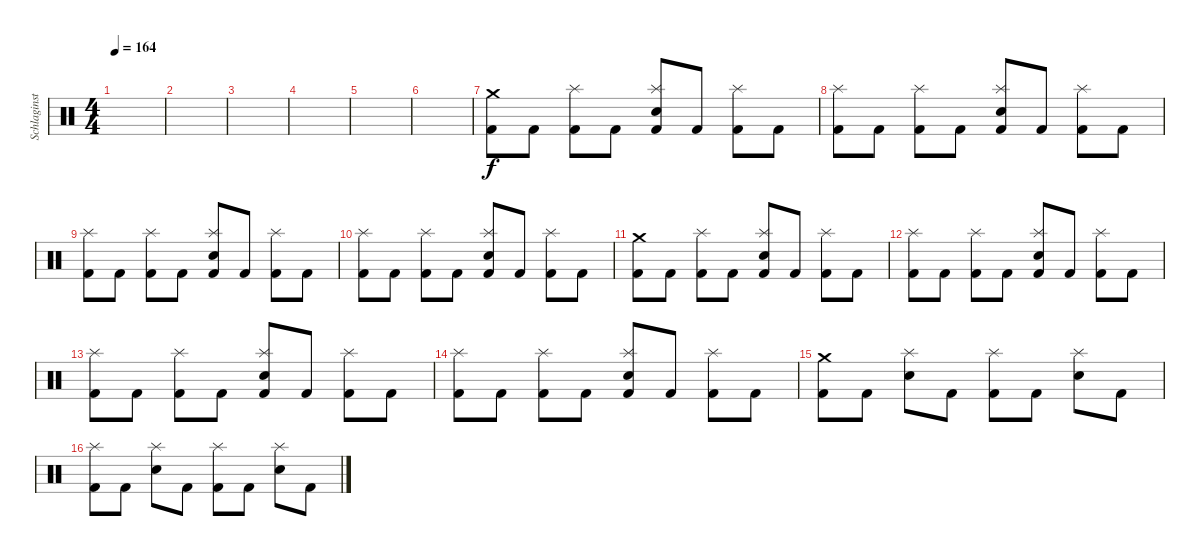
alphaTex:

\track ("Schlaginstrumente - Auswahl" "Schlaginst") {instrument percussion}
\staff {score}
\articulation defaults
\ts (4 4)
\tempo 164
\clef neutral
\ks c
|
|
|
|
|
|
("Crash medium (hit)" "Kick (hit) 2").8 "Kick (hit) 2".8 ("Splash (hit)" "Kick (hit) 2").8 "Kick (hit) 2".8 ("Splash (hit)" "Electric Snare (hit)" "Kick (hit) 2").8 "Kick (hit) 2".8 ("Splash (hit)" "Kick (hit) 2").8 "Kick (hit) 2".8 |
("Splash (hit)" "Kick (hit) 2").8 "Kick (hit) 2".8 ("Splash (hit)" "Kick (hit) 2").8 "Kick (hit) 2".8 ("Splash (hit)" "Electric Snare (hit)" "Kick (hit) 2").8 "Kick (hit) 2".8 ("Splash (hit)" "Kick (hit) 2").8 "Kick (hit) 2".8 |
("Splash (hit)" "Kick (hit) 2").8 "Kick (hit) 2".8 ("Splash (hit)" "Kick (hit) 2").8 "Kick (hit) 2".8 ("Splash (hit)" "Electric Snare (hit)" "Kick (hit) 2").8 "Kick (hit) 2".8 ("Splash (hit)" "Kick (hit) 2").8 "Kick (hit) 2".8 |
("Splash (hit)" "Kick (hit) 2").8 "Kick (hit) 2".8 ("Splash (hit)" "Kick (hit) 2").8 "Kick (hit) 2".8 ("Splash (hit)" "Electric Snare (hit)" "Kick (hit) 2").8 "Kick (hit) 2".8 ("Splash (hit)" "Kick (hit) 2").8 "Kick (hit) 2".8 |
("Crash medium (hit)" "Kick (hit) 2").8 "Kick (hit) 2".8 ("Splash (hit)" "Kick (hit) 2").8 "Kick (hit) 2".8 ("Splash (hit)" "Electric Snare (hit)" "Kick (hit) 2").8 "Kick (hit) 2".8 ("Splash (hit)" "Kick (hit) 2").8 "Kick (hit) 2".8 |
("Splash (hit)" "Kick (hit) 2").8 "Kick (hit) 2".8 ("Splash (hit)" "Kick (hit) 2").8 "Kick (hit) 2".8 ("Splash (hit)" "Electric Snare (hit)" "Kick (hit) 2").8 "Kick (hit) 2".8 ("Splash (hit)" "Kick (hit) 2").8 "Kick (hit) 2".8 |
("Splash (hit)" "Kick (hit) 2").8 "Kick (hit) 2".8 ("Splash (hit)" "Kick (hit) 2").8 "Kick (hit) 2".8 ("Splash (hit)" "Electric Snare (hit)" "Kick (hit) 2").8 "Kick (hit) 2".8 ("Splash (hit)" "Kick (hit) 2").8 "Kick (hit) 2".8 |
("Splash (hit)" "Kick (hit) 2").8 "Kick (hit) 2".8 ("Splash (hit)" "Kick (hit) 2").8 "Kick (hit) 2".8 ("Splash (hit)" "Electric Snare (hit)" "Kick (hit) 2").8 "Kick (hit) 2".8 ("Splash (hit)" "Kick (hit) 2").8 "Kick (hit) 2".8 |
("Crash medium (hit)" "Kick (hit) 2").8 "Kick (hit) 2".8 ("Splash (hit)" "Electric Snare (hit)").8 "Kick (hit) 2".8 ("Splash (hit)" "Kick (hit) 2").8 "Kick (hit) 2".8 ("Splash (hit)" "Electric Snare (hit)").8 "Kick (hit) 2".8 |
("Splash (hit)" "Kick (hit) 2").8 "Kick (hit) 2".8 ("Splash (hit)" "Electric Snare (hit)").8 "Kick (hit) 2".8 ("Splash (hit)" "Kick (hit) 2").8 "Kick (hit) 2".8 ("Splash (hit)" "Electric Snare (hit)").8 "Kick (hit) 2".8
